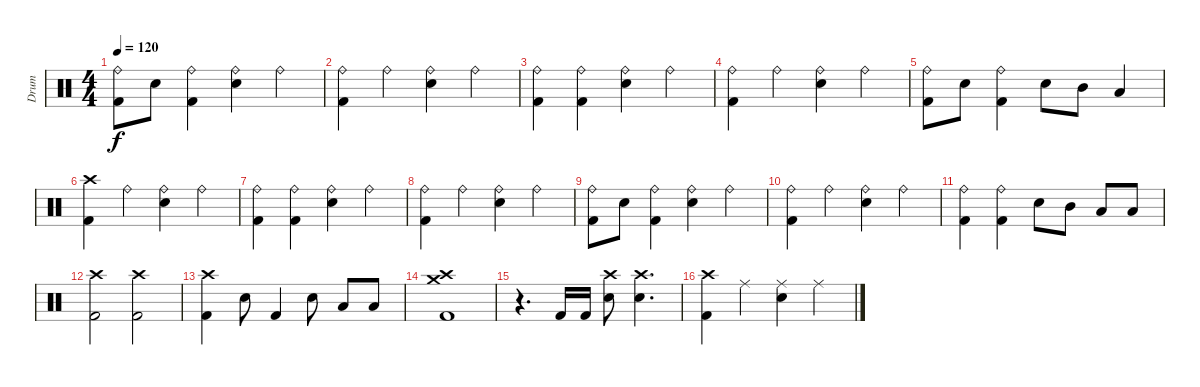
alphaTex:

\track ("Drum" "Drum") {instrument percussion}
\staff {score}
\articulation defaults
\ts (4 4)
\tempo 120
\clef neutral
\ks c
("Ride (bell)" "Kick (hit) 2").8{dy f} "Snare (hit) 2".8 ("Ride (bell)" "Kick (hit) 2").4 ("Ride (bell)" "Snare (hit) 2").4 "Ride (bell)".4 |
("Ride (bell)" "Kick (hit) 2").4 "Ride (bell)".4 ("Ride (bell)" "Snare (hit) 2").4 "Ride (bell)".4 |
("Ride (bell)" "Kick (hit) 2").4 ("Ride (bell)" "Kick (hit) 2").4 ("Ride (bell)" "Snare (hit) 2").4 "Ride (bell)".4 |
("Ride (bell)" "Kick (hit) 2").4 "Ride (bell)".4 ("Ride (bell)" "Snare (hit) 2").4 "Ride (bell)".4 |
("Ride (bell)" "Kick (hit) 2").8 "Snare (hit) 2".8 ("Ride (bell)" "Kick (hit) 2").4 "Snare (hit) 2".8 "Mid Tom (hit)".8 "Low Tom (hit)".4 |
("Crash high (hit)" "Kick (hit) 2").4 "Ride (bell)".4 ("Ride (bell)" "Snare (hit) 2").4 "Ride (bell)".4 |
("Ride (bell)" "Kick (hit) 2").4 ("Ride (bell)" "Kick (hit) 2").4 ("Ride (bell)" "Snare (hit) 2").4 "Ride (bell)".4 |
("Ride (bell)" "Kick (hit) 2").4 "Ride (bell)".4 ("Ride (bell)" "Snare (hit) 2").4 "Ride (bell)".4 |
("Ride (bell)" "Kick (hit) 2").8 "Snare (hit) 2".8 ("Ride (bell)" "Kick (hit) 2").4 ("Ride (bell)" "Snare (hit) 2").4 "Ride (bell)".4 |
("Ride (bell)" "Kick (hit) 2").4 "Ride (bell)".4 ("Ride (bell)" "Snare (hit) 2").4 "Ride (bell)".4 |
("Ride (bell)" "Kick (hit) 2").4 ("Ride (bell)" "Kick (hit) 2").4 "Snare (hit) 2".8 "Mid Tom (hit)".8 "Low Tom (hit)".8 "Low Floor Tom (hit)".8 |
("Crash high (hit)" "Kick (hit) 2").2 ("Kick (hit) 2" "Crash high (hit)").2 |
("Kick (hit) 2" "Crash high (hit)").4 "Snare (hit) 2".8 "Kick (hit) 2".4 "Snare (hit) 2".8 "Low Tom (hit)".8 "Low Floor Tom (hit)".8 |
("Kick (hit) 2" "Crash high (hit)" "Crash medium (hit)").1 |
r.4{d} "Kick (hit) 2".16 "Kick (hit) 2".16 ("Snare (hit) 2" "Crash high (hit)").8 ("Snare (hit) 2" "Crash high (hit)").4{d} |
("Crash high (hit)" "Kick (hit) 2").4 "Ride (middle)".4 ("Ride (middle)" "Snare (hit) 2").4 "Ride (middle)".4
